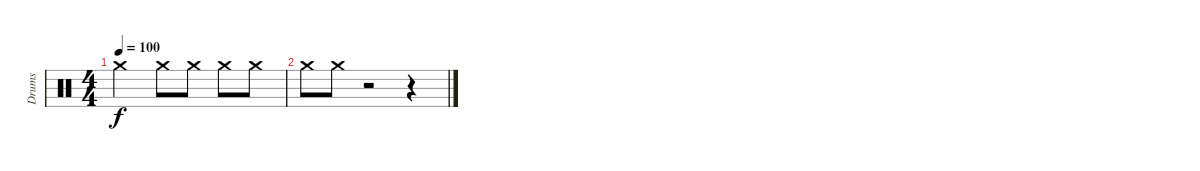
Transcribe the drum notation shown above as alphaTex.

\track ("Drums" "Drums") {instrument percussion}
\staff {score}
\articulation defaults
\ts (4 4)
\tempo 100
\clef neutral
\ks c "Crash medium (hit)".2{dy f} "Crash medium (hit)".8 "Crash medium (hit)".8 "Crash medium (hit)".8 "Crash medium (hit)".8
|
"Crash medium (hit)".8 "Crash medium (hit)".8 r.2 r.4
